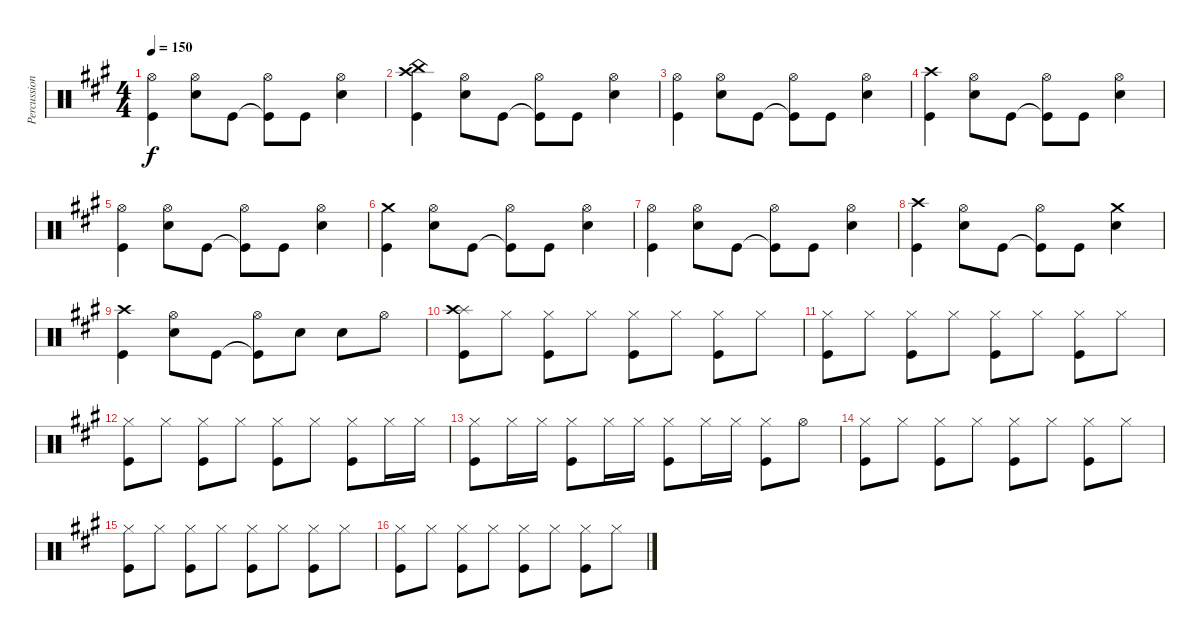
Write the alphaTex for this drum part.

\track ("Percussion" "Percussion") {instrument percussion}
\staff {score}
\articulation defaults
\ts (4 4)
\tempo 150
\clef neutral
\ks a
("Kick (hit)" "Hi-Hat (open)").4{dy f} ("Snare (hit) 2" "Hi-Hat (open)").8 "Kick (hit)".8 ("Kick (hit)"{t} "Hi-Hat (open)").8 "Kick (hit)".8 ("Snare (hit) 2" "Hi-Hat (open)").4 |
("Kick (hit)" "Crash high (hit)" "China (hit)").4 ("Snare (hit) 2" "Hi-Hat (open)").8 "Kick (hit)".8 ("Kick (hit)"{t} "Hi-Hat (open)").8 "Kick (hit)".8 ("Snare (hit) 2" "Hi-Hat (open)").4 |
("Kick (hit)" "Hi-Hat (open)").4 ("Snare (hit) 2" "Hi-Hat (open)").8 "Kick (hit)".8 ("Kick (hit)"{t} "Hi-Hat (open)").8 "Kick (hit)".8 ("Snare (hit) 2" "Hi-Hat (open)").4 |
("Kick (hit)" "Crash high (hit)").4 ("Snare (hit) 2" "Hi-Hat (open)").8 "Kick (hit)".8 ("Kick (hit)"{t} "Hi-Hat (open)").8 "Kick (hit)".8 ("Snare (hit) 2" "Hi-Hat (open)").4 |
("Kick (hit)" "Hi-Hat (open)").4 ("Snare (hit) 2" "Hi-Hat (open)").8 "Kick (hit)".8 ("Kick (hit)"{t} "Hi-Hat (open)").8 "Kick (hit)".8 ("Snare (hit) 2" "Hi-Hat (open)").4 |
("Kick (hit)" "Crash medium (hit)").4 ("Snare (hit) 2" "Hi-Hat (open)").8 "Kick (hit)".8 ("Kick (hit)"{t} "Hi-Hat (open)").8 "Kick (hit)".8 ("Snare (hit) 2" "Hi-Hat (open)").4 |
("Kick (hit)" "Hi-Hat (open)").4 ("Snare (hit) 2" "Hi-Hat (open)").8 "Kick (hit)".8 ("Kick (hit)"{t} "Hi-Hat (open)").8 "Kick (hit)".8 ("Snare (hit) 2" "Hi-Hat (open)").4 |
("Kick (hit)" "Crash high (hit)").4 ("Snare (hit) 2" "Hi-Hat (open)").8 "Kick (hit)".8 ("Kick (hit)"{t} "Hi-Hat (open)").8 "Kick (hit)".8 ("Snare (hit) 2" "Crash medium (hit)").4 |
("Kick (hit)" "Crash high (hit)").4 ("Snare (hit) 2" "Hi-Hat (open)").8 "Kick (hit)".8 ("Kick (hit)"{t} "Hi-Hat (open)").8 "Snare (hit) 2".8 "Snare (hit) 2".8 "Hi-Hat (open)".8 |
("Kick (hit)" "Splash (hit)" "Crash high (hit)").8 "Hi-Hat (closed)".8 ("Kick (hit)" "Hi-Hat (closed)").8 "Hi-Hat (closed)".8 ("Kick (hit)" "Hi-Hat (closed)").8 "Hi-Hat (closed)".8 ("Kick (hit)" "Hi-Hat (closed)").8 "Hi-Hat (closed)".8 |
("Kick (hit)" "Hi-Hat (closed)").8 "Hi-Hat (closed)".8 ("Kick (hit)" "Hi-Hat (closed)").8 "Hi-Hat (closed)".8 ("Kick (hit)" "Hi-Hat (closed)").8 "Hi-Hat (closed)".8 ("Kick (hit)" "Hi-Hat (closed)").8 "Hi-Hat (closed)".8 |
("Kick (hit)" "Hi-Hat (closed)").8 "Hi-Hat (closed)".8 ("Kick (hit)" "Hi-Hat (closed)").8 "Hi-Hat (closed)".8 ("Kick (hit)" "Hi-Hat (closed)").8 "Hi-Hat (closed)".8 ("Kick (hit)" "Hi-Hat (closed)").8 "Hi-Hat (closed)".16 "Hi-Hat (closed)".16 |
("Kick (hit)" "Hi-Hat (closed)").8 "Hi-Hat (closed)".16 "Hi-Hat (closed)".16 ("Kick (hit)" "Hi-Hat (closed)").8 "Hi-Hat (closed)".16 "Hi-Hat (closed)".16 ("Kick (hit)" "Hi-Hat (closed)").8 "Hi-Hat (closed)".16 "Hi-Hat (closed)".16 ("Kick (hit)" "Hi-Hat (closed)").8 "Hi-Hat (open)".8 |
("Kick (hit)" "Hi-Hat (closed)").8 "Hi-Hat (closed)".8 ("Kick (hit)" "Hi-Hat (closed)").8 "Hi-Hat (closed)".8 ("Kick (hit)" "Hi-Hat (closed)").8 "Hi-Hat (closed)".8 ("Kick (hit)" "Hi-Hat (closed)").8 "Hi-Hat (closed)".8 |
("Kick (hit)" "Hi-Hat (closed)").8 "Hi-Hat (closed)".8 ("Kick (hit)" "Hi-Hat (closed)").8 "Hi-Hat (closed)".8 ("Kick (hit)" "Hi-Hat (closed)").8 "Hi-Hat (closed)".8 ("Kick (hit)" "Hi-Hat (closed)").8 "Hi-Hat (closed)".8 |
("Kick (hit)" "Hi-Hat (closed)").8 "Hi-Hat (closed)".8 ("Kick (hit)" "Hi-Hat (closed)").8 "Hi-Hat (closed)".8 ("Kick (hit)" "Hi-Hat (closed)").8 "Hi-Hat (closed)".8 ("Kick (hit)" "Hi-Hat (closed)").8 "Hi-Hat (closed)".8
